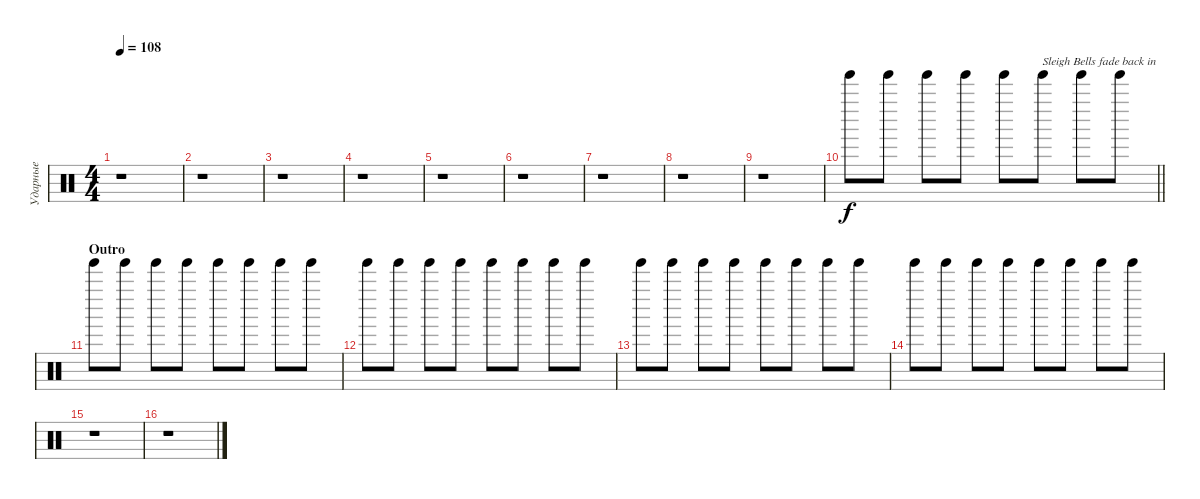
\track ("Ударные" "Ударные") {instrument percussion}
\staff {score}
\articulation defaults
\ts (4 4)
\tempo 108
\clef neutral
\ks c
r.1{dy f} |
r.1 |
r.1 |
r.1 |
r.1 |
r.1 |
r.1 |
r.1 |
r.1 |
\barLineRight lightlight "Tinkle Bell (hit)".8{volume 8} "Tinkle Bell (hit)".8 "Tinkle Bell (hit)".8 "Tinkle Bell (hit)".8 "Tinkle Bell (hit)".8 "Tinkle Bell (hit)".8{txt "Sleigh Bells fade back in"} "Tinkle Bell (hit)".8 "Tinkle Bell (hit)".8
|
\section ("" "Outro")
"Tinkle Bell (hit)".8 "Tinkle Bell (hit)".8 "Tinkle Bell (hit)".8 "Tinkle Bell (hit)".8 "Tinkle Bell (hit)".8 "Tinkle Bell (hit)".8 "Tinkle Bell (hit)".8 "Tinkle Bell (hit)".8 |
"Tinkle Bell (hit)".8 "Tinkle Bell (hit)".8 "Tinkle Bell (hit)".8 "Tinkle Bell (hit)".8 "Tinkle Bell (hit)".8 "Tinkle Bell (hit)".8 "Tinkle Bell (hit)".8 "Tinkle Bell (hit)".8 |
"Tinkle Bell (hit)".8 "Tinkle Bell (hit)".8 "Tinkle Bell (hit)".8 "Tinkle Bell (hit)".8 "Tinkle Bell (hit)".8 "Tinkle Bell (hit)".8 "Tinkle Bell (hit)".8 "Tinkle Bell (hit)".8 |
"Tinkle Bell (hit)".8 "Tinkle Bell (hit)".8 "Tinkle Bell (hit)".8 "Tinkle Bell (hit)".8 "Tinkle Bell (hit)".8 "Tinkle Bell (hit)".8 "Tinkle Bell (hit)".8 "Tinkle Bell (hit)".8 |
r.1 |
r.1
